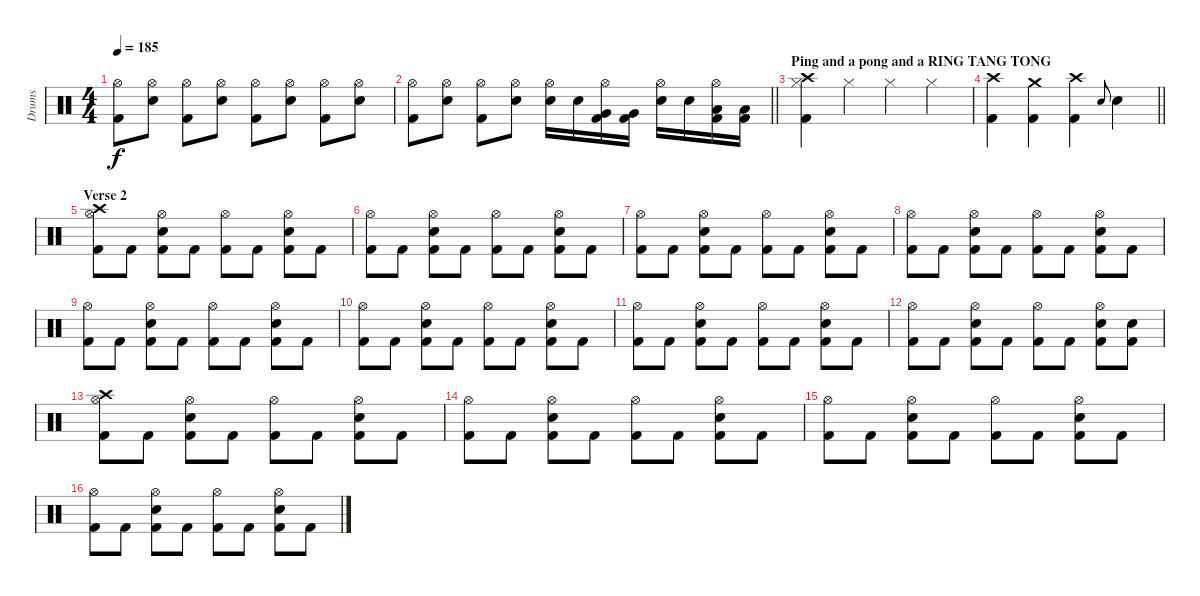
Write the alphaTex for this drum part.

\track ("Drums" "Drums") {instrument percussion}
\staff {score}
\articulation defaults
\ts (4 4)
\tempo 185
\clef neutral
\ks c
("Hi-Hat (open)" "Kick (hit) 2").8{dy f} ("Hi-Hat (open)" "Snare (hit) 2").8 ("Hi-Hat (open)" "Kick (hit) 2").8 ("Hi-Hat (open)" "Snare (hit) 2").8 ("Hi-Hat (open)" "Kick (hit) 2").8 ("Hi-Hat (open)" "Snare (hit) 2").8 ("Hi-Hat (open)" "Kick (hit) 2").8 ("Hi-Hat (open)" "Snare (hit) 2").8 |
\barLineRight lightlight
("Hi-Hat (open)" "Kick (hit) 2").8 ("Hi-Hat (open)" "Snare (hit) 2").8 ("Hi-Hat (open)" "Kick (hit) 2").8 ("Hi-Hat (open)" "Snare (hit) 2").8 ("Hi-Hat (open)" "Snare (hit) 2").16 "Snare (hit) 2".16 ("Hi-Hat (open)" "Very Low Tom (hit)" "Kick (hit) 2").16 ("Very Low Tom (hit)" "Kick (hit) 2").16 ("Hi-Hat (open)" "Snare (hit) 2").16 "Snare (hit) 2".16 ("Hi-Hat (open)" "Low Floor Tom (hit)" "Kick (hit) 2").16 ("Low Floor Tom (hit)" "Kick (hit) 2").16 |
\section ("" "Ping and a pong and a RING TANG TONG")
("Crash high (hit)" "Hi-Hat (closed)" "Kick (hit) 2").4 "Hi-Hat (closed)".4 "Hi-Hat (closed)".4 "Hi-Hat (closed)".4 |
\barLineRight lightlight
("Crash high (hit)" "Kick (hit) 2").4 ("Crash medium (hit)" "Kick (hit) 2").4 ("Crash high (hit)" "Kick (hit) 2").4 "Snare (hit) 2".8{gr onbeat} "Snare (hit) 2".4 |
\section ("" "Verse 2")
("Hi-Hat (open)" "Crash high (hit)" "Kick (hit) 2").8 "Kick (hit) 2".8 ("Hi-Hat (open)" "Snare (hit) 2" "Kick (hit) 2").8 "Kick (hit) 2".8 ("Hi-Hat (open)" "Kick (hit) 2").8 "Kick (hit) 2".8 ("Hi-Hat (open)" "Snare (hit) 2" "Kick (hit) 2").8 "Kick (hit) 2".8 |
("Hi-Hat (open)" "Kick (hit) 2").8 "Kick (hit) 2".8 ("Hi-Hat (open)" "Snare (hit) 2" "Kick (hit) 2").8 "Kick (hit) 2".8 ("Hi-Hat (open)" "Kick (hit) 2").8 "Kick (hit) 2".8 ("Hi-Hat (open)" "Snare (hit) 2" "Kick (hit) 2").8 "Kick (hit) 2".8 |
("Hi-Hat (open)" "Kick (hit) 2").8 "Kick (hit) 2".8 ("Hi-Hat (open)" "Snare (hit) 2" "Kick (hit) 2").8 "Kick (hit) 2".8 ("Hi-Hat (open)" "Kick (hit) 2").8 "Kick (hit) 2".8 ("Hi-Hat (open)" "Snare (hit) 2" "Kick (hit) 2").8 "Kick (hit) 2".8 |
("Hi-Hat (open)" "Kick (hit) 2").8 "Kick (hit) 2".8 ("Hi-Hat (open)" "Snare (hit) 2" "Kick (hit) 2").8 "Kick (hit) 2".8 ("Hi-Hat (open)" "Kick (hit) 2").8 "Kick (hit) 2".8 ("Hi-Hat (open)" "Snare (hit) 2" "Kick (hit) 2").8 "Kick (hit) 2".8 |
("Hi-Hat (open)" "Kick (hit) 2").8 "Kick (hit) 2".8 ("Hi-Hat (open)" "Snare (hit) 2" "Kick (hit) 2").8 "Kick (hit) 2".8 ("Hi-Hat (open)" "Kick (hit) 2").8 "Kick (hit) 2".8 ("Hi-Hat (open)" "Snare (hit) 2" "Kick (hit) 2").8 "Kick (hit) 2".8 |
("Hi-Hat (open)" "Kick (hit) 2").8 "Kick (hit) 2".8 ("Hi-Hat (open)" "Snare (hit) 2" "Kick (hit) 2").8 "Kick (hit) 2".8 ("Hi-Hat (open)" "Kick (hit) 2").8 "Kick (hit) 2".8 ("Hi-Hat (open)" "Snare (hit) 2" "Kick (hit) 2").8 "Kick (hit) 2".8 |
("Hi-Hat (open)" "Kick (hit) 2").8 "Kick (hit) 2".8 ("Hi-Hat (open)" "Snare (hit) 2" "Kick (hit) 2").8 "Kick (hit) 2".8 ("Hi-Hat (open)" "Kick (hit) 2").8 "Kick (hit) 2".8 ("Hi-Hat (open)" "Snare (hit) 2" "Kick (hit) 2").8 "Kick (hit) 2".8 |
("Hi-Hat (open)" "Kick (hit) 2").8 "Kick (hit) 2".8 ("Hi-Hat (open)" "Snare (hit) 2" "Kick (hit) 2").8 "Kick (hit) 2".8 ("Hi-Hat (open)" "Kick (hit) 2").8 "Kick (hit) 2".8 ("Hi-Hat (open)" "Snare (hit) 2" "Kick (hit) 2").8 ("Snare (hit) 2" "Kick (hit) 2").8 |
("Hi-Hat (open)" "Crash high (hit)" "Kick (hit) 2").8 "Kick (hit) 2".8 ("Hi-Hat (open)" "Snare (hit) 2" "Kick (hit) 2").8 "Kick (hit) 2".8 ("Hi-Hat (open)" "Kick (hit) 2").8 "Kick (hit) 2".8 ("Hi-Hat (open)" "Snare (hit) 2" "Kick (hit) 2").8 "Kick (hit) 2".8 |
("Hi-Hat (open)" "Kick (hit) 2").8 "Kick (hit) 2".8 ("Hi-Hat (open)" "Snare (hit) 2" "Kick (hit) 2").8 "Kick (hit) 2".8 ("Hi-Hat (open)" "Kick (hit) 2").8 "Kick (hit) 2".8 ("Hi-Hat (open)" "Snare (hit) 2" "Kick (hit) 2").8 "Kick (hit) 2".8 |
("Hi-Hat (open)" "Kick (hit) 2").8 "Kick (hit) 2".8 ("Hi-Hat (open)" "Snare (hit) 2" "Kick (hit) 2").8 "Kick (hit) 2".8 ("Hi-Hat (open)" "Kick (hit) 2").8 "Kick (hit) 2".8 ("Hi-Hat (open)" "Snare (hit) 2" "Kick (hit) 2").8 "Kick (hit) 2".8 |
("Hi-Hat (open)" "Kick (hit) 2").8 "Kick (hit) 2".8 ("Hi-Hat (open)" "Snare (hit) 2" "Kick (hit) 2").8 "Kick (hit) 2".8 ("Hi-Hat (open)" "Kick (hit) 2").8 "Kick (hit) 2".8 ("Hi-Hat (open)" "Snare (hit) 2" "Kick (hit) 2").8 "Kick (hit) 2".8
